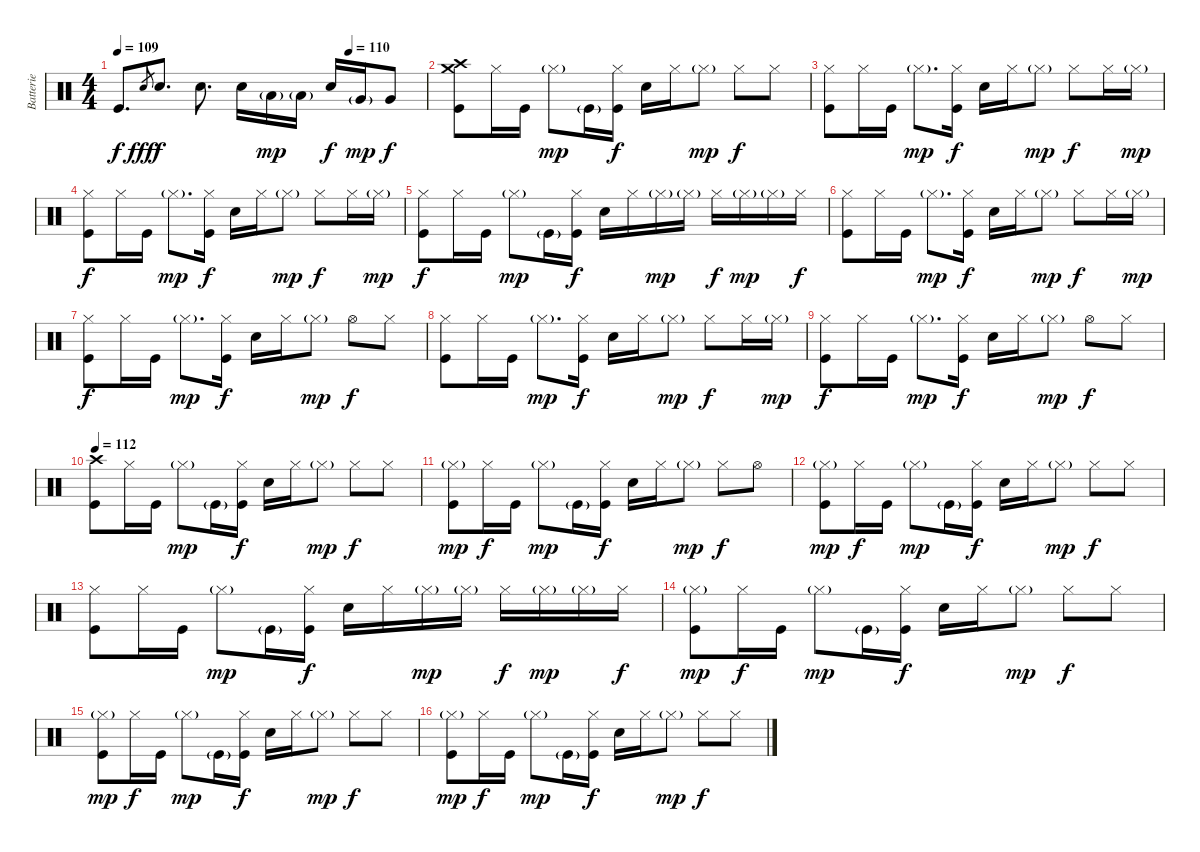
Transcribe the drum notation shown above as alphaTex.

\track ("Batterie" "Batterie") {instrument percussion}
\staff {score}
\articulation defaults
\ts (4 4)
\tempo 109
\tempo (110 0.75)
\clef neutral
\ks c "Kick (hit)".8{d dy f} "Electric Snare (hit)".8{gr dy fff} "Electric Snare (hit)".8{d dy f} "Electric Snare (hit)".8{d} "Electric Snare (hit)".16 "Low Tom (hit)"{g}.16{dy mp} "Low Tom (hit)"{g}.16 "Electric Snare (hit)".16{dy f} "Very Low Tom (hit)"{g}.16{dy mp} "Very Low Tom (hit)".8{dy f}
|
("Crash high (hit)" "Crash medium (hit)" "Kick (hit)").8 "Hi-Hat (closed)".16 "Kick (hit)".16 "Hi-Hat (closed)"{g}.8{dy mp} "Kick (hit)"{g}.16 ("Hi-Hat (closed)" "Kick (hit)").16{dy f} "Electric Snare (hit)".16 "Hi-Hat (closed)".16 "Hi-Hat (closed)"{g}.8{dy mp} "Hi-Hat (closed)".8{dy f} "Hi-Hat (closed)".8 |
("Hi-Hat (closed)" "Kick (hit)").8 "Hi-Hat (closed)".16 "Kick (hit)".16 "Hi-Hat (closed)"{g}.8{d dy mp} ("Hi-Hat (closed)" "Kick (hit)").16{dy f} "Electric Snare (hit)".16 "Hi-Hat (closed)".16 "Hi-Hat (closed)"{g}.8{dy mp} "Hi-Hat (closed)".8{dy f} "Hi-Hat (closed)".16 "Hi-Hat (closed)"{g}.16{dy mp} |
("Hi-Hat (closed)" "Kick (hit)").8{dy f} "Hi-Hat (closed)".16 "Kick (hit)".16 "Hi-Hat (closed)"{g}.8{d dy mp} ("Hi-Hat (closed)" "Kick (hit)").16{dy f} "Electric Snare (hit)".16 "Hi-Hat (closed)".16 "Hi-Hat (closed)"{g}.8{dy mp} "Hi-Hat (closed)".8{dy f} "Hi-Hat (closed)".16 "Hi-Hat (closed)"{g}.16{dy mp} |
("Hi-Hat (closed)" "Kick (hit)").8{dy f} "Hi-Hat (closed)".16 "Kick (hit)".16 "Hi-Hat (closed)"{g}.8{dy mp} "Kick (hit)"{g}.16 ("Hi-Hat (closed)" "Kick (hit)").16{dy f} "Electric Snare (hit)".16 "Hi-Hat (closed)".16 "Hi-Hat (closed)"{g}.16{dy mp} "Hi-Hat (closed)"{g}.16 "Hi-Hat (closed)".16{dy f} "Hi-Hat (closed)"{g}.16{dy mp} "Hi-Hat (closed)"{g}.16 "Hi-Hat (closed)".16{dy f} |
("Hi-Hat (closed)" "Kick (hit)").8 "Hi-Hat (closed)".16 "Kick (hit)".16 "Hi-Hat (closed)"{g}.8{d dy mp} ("Hi-Hat (closed)" "Kick (hit)").16{dy f} "Electric Snare (hit)".16 "Hi-Hat (closed)".16 "Hi-Hat (closed)"{g}.8{dy mp} "Hi-Hat (closed)".8{dy f} "Hi-Hat (closed)".16 "Hi-Hat (closed)"{g}.16{dy mp} |
("Hi-Hat (closed)" "Kick (hit)").8{dy f} "Hi-Hat (closed)".16 "Kick (hit)".16 "Hi-Hat (closed)"{g}.8{d dy mp} ("Hi-Hat (closed)" "Kick (hit)").16{dy f} "Electric Snare (hit)".16 "Hi-Hat (closed)".16 "Hi-Hat (closed)"{g}.8{dy mp} "Hi-Hat (open)".8{dy f} "Hi-Hat (closed)".8 |
("Hi-Hat (closed)" "Kick (hit)").8 "Hi-Hat (closed)".16 "Kick (hit)".16 "Hi-Hat (closed)"{g}.8{d dy mp} ("Hi-Hat (closed)" "Kick (hit)").16{dy f} "Electric Snare (hit)".16 "Hi-Hat (closed)".16 "Hi-Hat (closed)"{g}.8{dy mp} "Hi-Hat (closed)".8{dy f} "Hi-Hat (closed)".16 "Hi-Hat (closed)"{g}.16{dy mp} |
("Hi-Hat (closed)" "Kick (hit)").8{dy f} "Hi-Hat (closed)".16 "Kick (hit)".16 "Hi-Hat (closed)"{g}.8{d dy mp} ("Hi-Hat (closed)" "Kick (hit)").16{dy f} "Electric Snare (hit)".16 "Hi-Hat (closed)".16 "Hi-Hat (closed)"{g}.8{dy mp} "Hi-Hat (open)".8{dy f} "Hi-Hat (closed)".8 |
\tempo 112
("Crash high (hit)" "Kick (hit)").8 "Hi-Hat (closed)".16 "Kick (hit)".16 "Hi-Hat (closed)"{g}.8{dy mp} "Kick (hit)"{g}.16 ("Hi-Hat (closed)" "Kick (hit)").16{dy f} "Electric Snare (hit)".16 "Hi-Hat (closed)".16 "Hi-Hat (closed)"{g}.8{dy mp} "Hi-Hat (closed)".8{dy f} "Hi-Hat (closed)".8 |
("Hi-Hat (closed)"{g} "Kick (hit)").8{dy mp} "Hi-Hat (closed)".16{dy f} "Kick (hit)".16 "Hi-Hat (closed)"{g}.8{dy mp} "Kick (hit)"{g}.16 ("Hi-Hat (closed)" "Kick (hit)").16{dy f} "Electric Snare (hit)".16 "Hi-Hat (closed)".16 "Hi-Hat (closed)"{g}.8{dy mp} "Hi-Hat (closed)".8{dy f} "Hi-Hat (open)".8 |
("Hi-Hat (closed)"{g} "Kick (hit)").8{dy mp} "Hi-Hat (closed)".16{dy f} "Kick (hit)".16 "Hi-Hat (closed)"{g}.8{dy mp} "Kick (hit)"{g}.16 ("Hi-Hat (closed)" "Kick (hit)").16{dy f} "Electric Snare (hit)".16 "Hi-Hat (closed)".16 "Hi-Hat (closed)"{g}.8{dy mp} "Hi-Hat (closed)".8{dy f} "Hi-Hat (closed)".8 |
("Hi-Hat (closed)" "Kick (hit)").8 "Hi-Hat (closed)".16 "Kick (hit)".16 "Hi-Hat (closed)"{g}.8{dy mp} "Kick (hit)"{g}.16 ("Hi-Hat (closed)" "Kick (hit)").16{dy f} "Electric Snare (hit)".16 "Hi-Hat (closed)".16 "Hi-Hat (closed)"{g}.16{dy mp} "Hi-Hat (closed)"{g}.16 "Hi-Hat (closed)".16{dy f} "Hi-Hat (closed)"{g}.16{dy mp} "Hi-Hat (closed)"{g}.16 "Hi-Hat (closed)".16{dy f} |
("Hi-Hat (closed)"{g} "Kick (hit)").8{dy mp} "Hi-Hat (closed)".16{dy f} "Kick (hit)".16 "Hi-Hat (closed)"{g}.8{dy mp} "Kick (hit)"{g}.16 ("Hi-Hat (closed)" "Kick (hit)").16{dy f} "Electric Snare (hit)".16 "Hi-Hat (closed)".16 "Hi-Hat (closed)"{g}.8{dy mp} "Hi-Hat (closed)".8{dy f} "Hi-Hat (closed)".8 |
("Hi-Hat (closed)"{g} "Kick (hit)").8{dy mp} "Hi-Hat (closed)".16{dy f} "Kick (hit)".16 "Hi-Hat (closed)"{g}.8{dy mp} "Kick (hit)"{g}.16 ("Hi-Hat (closed)" "Kick (hit)").16{dy f} "Electric Snare (hit)".16 "Hi-Hat (closed)".16 "Hi-Hat (closed)"{g}.8{dy mp} "Hi-Hat (closed)".8{dy f} "Hi-Hat (closed)".8 |
("Hi-Hat (closed)"{g} "Kick (hit)").8{dy mp} "Hi-Hat (closed)".16{dy f} "Kick (hit)".16 "Hi-Hat (closed)"{g}.8{dy mp} "Kick (hit)"{g}.16 ("Hi-Hat (closed)" "Kick (hit)").16{dy f} "Electric Snare (hit)".16 "Hi-Hat (closed)".16 "Hi-Hat (closed)"{g}.8{dy mp} "Hi-Hat (closed)".8{dy f} "Hi-Hat (closed)".8
